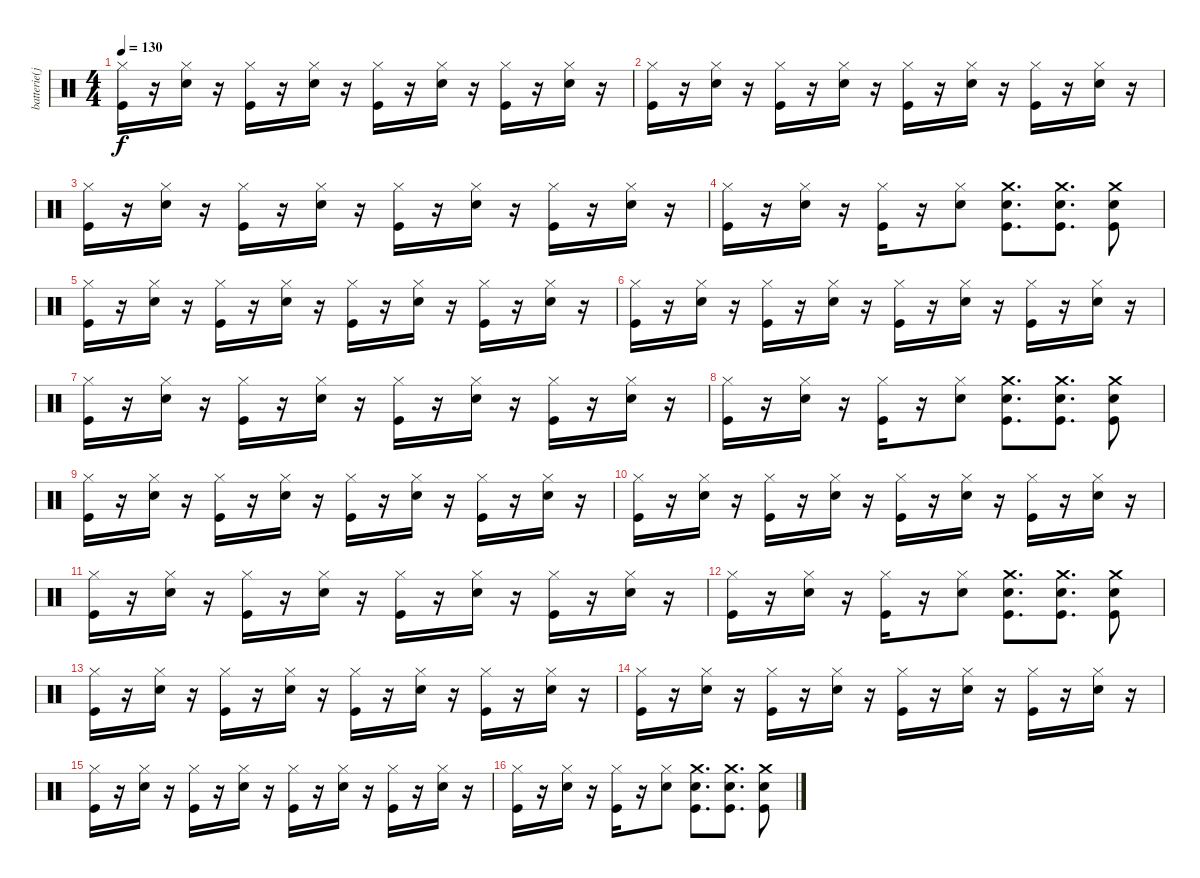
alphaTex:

\track ("batterie(joost)" "batterie(j") {instrument percussion}
\staff {score}
\articulation defaults
\ts (4 4)
\tempo 130
\clef neutral
\ks c
("Hi-Hat (closed)" "Kick (hit)").16{dy f} r.16 ("Hi-Hat (closed)" "Snare (hit) 2").16 r.16 ("Hi-Hat (closed)" "Kick (hit)").16 r.16 ("Hi-Hat (closed)" "Snare (hit) 2").16 r.16 ("Hi-Hat (closed)" "Kick (hit)").16 r.16 ("Hi-Hat (closed)" "Snare (hit) 2").16 r.16 ("Hi-Hat (closed)" "Kick (hit)").16 r.16 ("Hi-Hat (closed)" "Snare (hit) 2").16 r.16 |
("Hi-Hat (closed)" "Kick (hit)").16 r.16 ("Hi-Hat (closed)" "Snare (hit) 2").16 r.16 ("Hi-Hat (closed)" "Kick (hit)").16 r.16 ("Hi-Hat (closed)" "Snare (hit) 2").16 r.16 ("Hi-Hat (closed)" "Kick (hit)").16 r.16 ("Hi-Hat (closed)" "Snare (hit) 2").16 r.16 ("Hi-Hat (closed)" "Kick (hit)").16 r.16 ("Hi-Hat (closed)" "Snare (hit) 2").16 r.16 |
("Hi-Hat (closed)" "Kick (hit)").16 r.16 ("Hi-Hat (closed)" "Snare (hit) 2").16 r.16 ("Hi-Hat (closed)" "Kick (hit)").16 r.16 ("Hi-Hat (closed)" "Snare (hit) 2").16 r.16 ("Hi-Hat (closed)" "Kick (hit)").16 r.16 ("Hi-Hat (closed)" "Snare (hit) 2").16 r.16 ("Hi-Hat (closed)" "Kick (hit)").16 r.16 ("Hi-Hat (closed)" "Snare (hit) 2").16 r.16 |
("Hi-Hat (closed)" "Kick (hit)").16 r.16 ("Hi-Hat (closed)" "Snare (hit) 2").16 r.16 ("Hi-Hat (closed)" "Kick (hit)").16 r.16 ("Hi-Hat (closed)" "Snare (hit) 2").8 ("Crash medium (hit)" "Snare (hit) 2" "Kick (hit)").8{d} ("Crash medium (hit)" "Snare (hit) 2" "Kick (hit)").8{d} ("Crash medium (hit)" "Snare (hit) 2" "Kick (hit)").8 |
("Hi-Hat (closed)" "Kick (hit)").16 r.16 ("Hi-Hat (closed)" "Snare (hit) 2").16 r.16 ("Hi-Hat (closed)" "Kick (hit)").16 r.16 ("Hi-Hat (closed)" "Snare (hit) 2").16 r.16 ("Hi-Hat (closed)" "Kick (hit)").16 r.16 ("Hi-Hat (closed)" "Snare (hit) 2").16 r.16 ("Hi-Hat (closed)" "Kick (hit)").16 r.16 ("Hi-Hat (closed)" "Snare (hit) 2").16 r.16 |
("Hi-Hat (closed)" "Kick (hit)").16 r.16 ("Hi-Hat (closed)" "Snare (hit) 2").16 r.16 ("Hi-Hat (closed)" "Kick (hit)").16 r.16 ("Hi-Hat (closed)" "Snare (hit) 2").16 r.16 ("Hi-Hat (closed)" "Kick (hit)").16 r.16 ("Hi-Hat (closed)" "Snare (hit) 2").16 r.16 ("Hi-Hat (closed)" "Kick (hit)").16 r.16 ("Hi-Hat (closed)" "Snare (hit) 2").16 r.16 |
("Hi-Hat (closed)" "Kick (hit)").16 r.16 ("Hi-Hat (closed)" "Snare (hit) 2").16 r.16 ("Hi-Hat (closed)" "Kick (hit)").16 r.16 ("Hi-Hat (closed)" "Snare (hit) 2").16 r.16 ("Hi-Hat (closed)" "Kick (hit)").16 r.16 ("Hi-Hat (closed)" "Snare (hit) 2").16 r.16 ("Hi-Hat (closed)" "Kick (hit)").16 r.16 ("Hi-Hat (closed)" "Snare (hit) 2").16 r.16 |
("Hi-Hat (closed)" "Kick (hit)").16 r.16 ("Hi-Hat (closed)" "Snare (hit) 2").16 r.16 ("Hi-Hat (closed)" "Kick (hit)").16 r.16 ("Hi-Hat (closed)" "Snare (hit) 2").8 ("Crash medium (hit)" "Snare (hit) 2" "Kick (hit)").8{d} ("Crash medium (hit)" "Snare (hit) 2" "Kick (hit)").8{d} ("Crash medium (hit)" "Snare (hit) 2" "Kick (hit)").8 |
("Hi-Hat (closed)" "Kick (hit)").16 r.16 ("Hi-Hat (closed)" "Snare (hit) 2").16 r.16 ("Hi-Hat (closed)" "Kick (hit)").16 r.16 ("Hi-Hat (closed)" "Snare (hit) 2").16 r.16 ("Hi-Hat (closed)" "Kick (hit)").16 r.16 ("Hi-Hat (closed)" "Snare (hit) 2").16 r.16 ("Hi-Hat (closed)" "Kick (hit)").16 r.16 ("Hi-Hat (closed)" "Snare (hit) 2").16 r.16 |
("Hi-Hat (closed)" "Kick (hit)").16 r.16 ("Hi-Hat (closed)" "Snare (hit) 2").16 r.16 ("Hi-Hat (closed)" "Kick (hit)").16 r.16 ("Hi-Hat (closed)" "Snare (hit) 2").16 r.16 ("Hi-Hat (closed)" "Kick (hit)").16 r.16 ("Hi-Hat (closed)" "Snare (hit) 2").16 r.16 ("Hi-Hat (closed)" "Kick (hit)").16 r.16 ("Hi-Hat (closed)" "Snare (hit) 2").16 r.16 |
("Hi-Hat (closed)" "Kick (hit)").16 r.16 ("Hi-Hat (closed)" "Snare (hit) 2").16 r.16 ("Hi-Hat (closed)" "Kick (hit)").16 r.16 ("Hi-Hat (closed)" "Snare (hit) 2").16 r.16 ("Hi-Hat (closed)" "Kick (hit)").16 r.16 ("Hi-Hat (closed)" "Snare (hit) 2").16 r.16 ("Hi-Hat (closed)" "Kick (hit)").16 r.16 ("Hi-Hat (closed)" "Snare (hit) 2").16 r.16 |
("Hi-Hat (closed)" "Kick (hit)").16 r.16 ("Hi-Hat (closed)" "Snare (hit) 2").16 r.16 ("Hi-Hat (closed)" "Kick (hit)").16 r.16 ("Hi-Hat (closed)" "Snare (hit) 2").8 ("Crash medium (hit)" "Snare (hit) 2" "Kick (hit)").8{d} ("Crash medium (hit)" "Snare (hit) 2" "Kick (hit)").8{d} ("Crash medium (hit)" "Snare (hit) 2" "Kick (hit)").8 |
("Hi-Hat (closed)" "Kick (hit)").16 r.16 ("Hi-Hat (closed)" "Snare (hit) 2").16 r.16 ("Hi-Hat (closed)" "Kick (hit)").16 r.16 ("Hi-Hat (closed)" "Snare (hit) 2").16 r.16 ("Hi-Hat (closed)" "Kick (hit)").16 r.16 ("Hi-Hat (closed)" "Snare (hit) 2").16 r.16 ("Hi-Hat (closed)" "Kick (hit)").16 r.16 ("Hi-Hat (closed)" "Snare (hit) 2").16 r.16 |
("Hi-Hat (closed)" "Kick (hit)").16 r.16 ("Hi-Hat (closed)" "Snare (hit) 2").16 r.16 ("Hi-Hat (closed)" "Kick (hit)").16 r.16 ("Hi-Hat (closed)" "Snare (hit) 2").16 r.16 ("Hi-Hat (closed)" "Kick (hit)").16 r.16 ("Hi-Hat (closed)" "Snare (hit) 2").16 r.16 ("Hi-Hat (closed)" "Kick (hit)").16 r.16 ("Hi-Hat (closed)" "Snare (hit) 2").16 r.16 |
("Hi-Hat (closed)" "Kick (hit)").16 r.16 ("Hi-Hat (closed)" "Snare (hit) 2").16 r.16 ("Hi-Hat (closed)" "Kick (hit)").16 r.16 ("Hi-Hat (closed)" "Snare (hit) 2").16 r.16 ("Hi-Hat (closed)" "Kick (hit)").16 r.16 ("Hi-Hat (closed)" "Snare (hit) 2").16 r.16 ("Hi-Hat (closed)" "Kick (hit)").16 r.16 ("Hi-Hat (closed)" "Snare (hit) 2").16 r.16 |
("Hi-Hat (closed)" "Kick (hit)").16 r.16 ("Hi-Hat (closed)" "Snare (hit) 2").16 r.16 ("Hi-Hat (closed)" "Kick (hit)").16 r.16 ("Hi-Hat (closed)" "Snare (hit) 2").8 ("Crash medium (hit)" "Snare (hit) 2" "Kick (hit)").8{d} ("Crash medium (hit)" "Snare (hit) 2" "Kick (hit)").8{d} ("Crash medium (hit)" "Snare (hit) 2" "Kick (hit)").8
